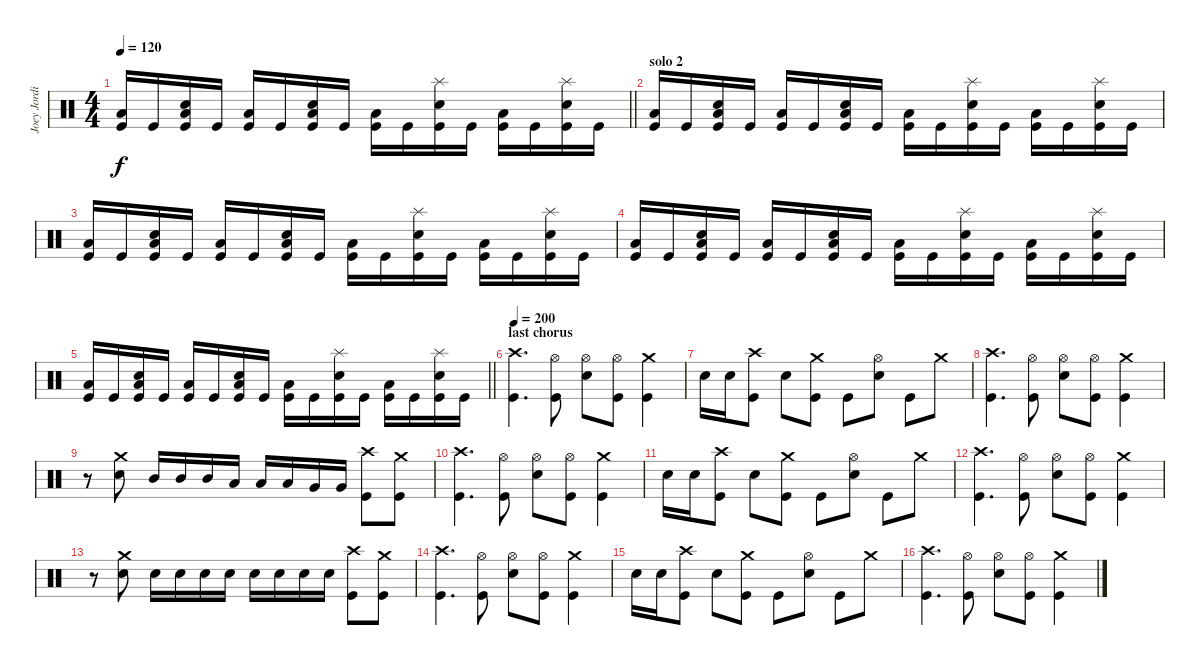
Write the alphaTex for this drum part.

\track ("Joey Jordison" "Joey Jordi") {instrument percussion}
\staff {score}
\articulation defaults
\ts (4 4)
\tempo 120
\clef neutral
\barLineRight lightlight
\ks c
("Low Floor Tom (hit)" "Kick (hit)").16{dy f} "Kick (hit)".16 ("Low Floor Tom (hit)" "Electric Snare (hit)" "Kick (hit)").16 "Kick (hit)".16 ("Low Floor Tom (hit)" "Kick (hit)").16 "Kick (hit)".16 ("Low Floor Tom (hit)" "Electric Snare (hit)" "Kick (hit)").16 "Kick (hit)".16 ("Low Floor Tom (hit)" "Kick (hit)").16 "Kick (hit)".16 ("Splash (hit)" "Electric Snare (hit)" "Kick (hit)").16 "Kick (hit)".16 ("Low Floor Tom (hit)" "Kick (hit)").16 "Kick (hit)".16 ("Splash (hit)" "Electric Snare (hit)" "Kick (hit)").16 "Kick (hit)".16 |
\section ("" "solo 2")
("Low Floor Tom (hit)" "Kick (hit)").16 "Kick (hit)".16 ("Low Floor Tom (hit)" "Electric Snare (hit)" "Kick (hit)").16 "Kick (hit)".16 ("Low Floor Tom (hit)" "Kick (hit)").16 "Kick (hit)".16 ("Low Floor Tom (hit)" "Electric Snare (hit)" "Kick (hit)").16 "Kick (hit)".16 ("Low Floor Tom (hit)" "Kick (hit)").16 "Kick (hit)".16 ("Splash (hit)" "Electric Snare (hit)" "Kick (hit)").16 "Kick (hit)".16 ("Low Floor Tom (hit)" "Kick (hit)").16 "Kick (hit)".16 ("Splash (hit)" "Electric Snare (hit)" "Kick (hit)").16 "Kick (hit)".16 |
("Low Floor Tom (hit)" "Kick (hit)").16 "Kick (hit)".16 ("Low Floor Tom (hit)" "Electric Snare (hit)" "Kick (hit)").16 "Kick (hit)".16 ("Low Floor Tom (hit)" "Kick (hit)").16 "Kick (hit)".16 ("Low Floor Tom (hit)" "Electric Snare (hit)" "Kick (hit)").16 "Kick (hit)".16 ("Low Floor Tom (hit)" "Kick (hit)").16 "Kick (hit)".16 ("Splash (hit)" "Electric Snare (hit)" "Kick (hit)").16 "Kick (hit)".16 ("Low Floor Tom (hit)" "Kick (hit)").16 "Kick (hit)".16 ("Splash (hit)" "Electric Snare (hit)" "Kick (hit)").16 "Kick (hit)".16 |
("Low Floor Tom (hit)" "Kick (hit)").16 "Kick (hit)".16 ("Low Floor Tom (hit)" "Electric Snare (hit)" "Kick (hit)").16 "Kick (hit)".16 ("Low Floor Tom (hit)" "Kick (hit)").16 "Kick (hit)".16 ("Low Floor Tom (hit)" "Electric Snare (hit)" "Kick (hit)").16 "Kick (hit)".16 ("Low Floor Tom (hit)" "Kick (hit)").16 "Kick (hit)".16 ("Splash (hit)" "Electric Snare (hit)" "Kick (hit)").16 "Kick (hit)".16 ("Low Floor Tom (hit)" "Kick (hit)").16 "Kick (hit)".16 ("Splash (hit)" "Electric Snare (hit)" "Kick (hit)").16 "Kick (hit)".16 |
\barLineRight lightlight
("Low Floor Tom (hit)" "Kick (hit)").16 "Kick (hit)".16 ("Low Floor Tom (hit)" "Electric Snare (hit)" "Kick (hit)").16 "Kick (hit)".16 ("Low Floor Tom (hit)" "Kick (hit)").16 "Kick (hit)".16 ("Low Floor Tom (hit)" "Electric Snare (hit)" "Kick (hit)").16 "Kick (hit)".16 ("Low Floor Tom (hit)" "Kick (hit)").16 "Kick (hit)".16 ("Splash (hit)" "Electric Snare (hit)" "Kick (hit)").16 "Kick (hit)".16 ("Low Floor Tom (hit)" "Kick (hit)").16 "Kick (hit)".16 ("Splash (hit)" "Electric Snare (hit)" "Kick (hit)").16 "Kick (hit)".16 |
\section ("" "last chorus")
\tempo 200
("Crash high (hit)" "Kick (hit)").4{d} ("Hi-Hat (open)" "Kick (hit)").8 ("Hi-Hat (open)" "Electric Snare (hit)").8 ("Hi-Hat (open)" "Kick (hit)").8 ("Crash medium (hit)" "Kick (hit)").4 |
"Electric Snare (hit)".16 "Electric Snare (hit)".16 ("Crash high (hit)" "Kick (hit)").8 "Electric Snare (hit)".8 ("Crash medium (hit)" "Kick (hit)").8 "Kick (hit)".8 ("Hi-Hat (open)" "Electric Snare (hit)").8 "Kick (hit)".8 "Crash medium (hit)".8 |
("Crash high (hit)" "Kick (hit)").4{d} ("Hi-Hat (open)" "Kick (hit)").8 ("Hi-Hat (open)" "Electric Snare (hit)").8 ("Hi-Hat (open)" "Kick (hit)").8 ("Crash medium (hit)" "Kick (hit)").4 |
r.8 ("Crash medium (hit)" "Electric Snare (hit)").8 "Mid Tom (hit)".16 "Mid Tom (hit)".16 "Mid Tom (hit)".16 "Low Tom (hit)".16 "Low Tom (hit)".16 "Low Tom (hit)".16 "Very Low Tom (hit)".16 "Very Low Tom (hit)".16 ("Crash high (hit)" "Kick (hit)").8 ("Crash medium (hit)" "Kick (hit)").8 |
("Crash high (hit)" "Kick (hit)").4{d} ("Hi-Hat (open)" "Kick (hit)").8 ("Hi-Hat (open)" "Electric Snare (hit)").8 ("Hi-Hat (open)" "Kick (hit)").8 ("Crash medium (hit)" "Kick (hit)").4 |
"Electric Snare (hit)".16 "Electric Snare (hit)".16 ("Crash high (hit)" "Kick (hit)").8 "Electric Snare (hit)".8 ("Crash medium (hit)" "Kick (hit)").8 "Kick (hit)".8 ("Hi-Hat (open)" "Electric Snare (hit)").8 "Kick (hit)".8 "Crash medium (hit)".8 |
("Crash high (hit)" "Kick (hit)").4{d} ("Hi-Hat (open)" "Kick (hit)").8 ("Hi-Hat (open)" "Electric Snare (hit)").8 ("Hi-Hat (open)" "Kick (hit)").8 ("Crash medium (hit)" "Kick (hit)").4 |
r.8 ("Crash medium (hit)" "Electric Snare (hit)").8 "Electric Snare (hit)".16 "Electric Snare (hit)".16 "Electric Snare (hit)".16 "Electric Snare (hit)".16 "Electric Snare (hit)".16 "Electric Snare (hit)".16 "Electric Snare (hit)".16 "Electric Snare (hit)".16 ("Crash high (hit)" "Kick (hit)").8 ("Crash medium (hit)" "Kick (hit)").8 |
("Crash high (hit)" "Kick (hit)").4{d} ("Hi-Hat (open)" "Kick (hit)").8 ("Hi-Hat (open)" "Electric Snare (hit)").8 ("Hi-Hat (open)" "Kick (hit)").8 ("Crash medium (hit)" "Kick (hit)").4 |
"Electric Snare (hit)".16 "Electric Snare (hit)".16 ("Crash high (hit)" "Kick (hit)").8 "Electric Snare (hit)".8 ("Crash medium (hit)" "Kick (hit)").8 "Kick (hit)".8 ("Hi-Hat (open)" "Electric Snare (hit)").8 "Kick (hit)".8 "Crash medium (hit)".8 |
("Crash high (hit)" "Kick (hit)").4{d} ("Hi-Hat (open)" "Kick (hit)").8 ("Hi-Hat (open)" "Electric Snare (hit)").8 ("Hi-Hat (open)" "Kick (hit)").8 ("Crash medium (hit)" "Kick (hit)").4
